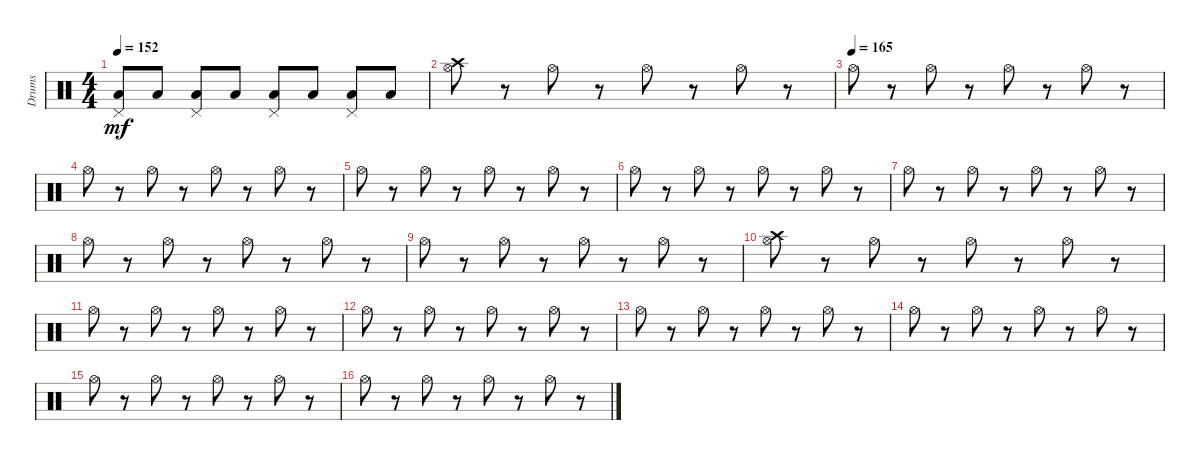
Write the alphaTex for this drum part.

\track ("Drums" "Drums") {instrument percussion}
\staff {score}
\articulation defaults
\ts (4 4)
\tempo 152
\clef neutral
\ks c
("Low Floor Tom (hit)" "Pedal Hi-Hat (hit)").8{dy mf} "Low Floor Tom (hit)".8 ("Low Floor Tom (hit)" "Pedal Hi-Hat (hit)").8 "Low Floor Tom (hit)".8 ("Low Floor Tom (hit)" "Pedal Hi-Hat (hit)").8 "Low Floor Tom (hit)".8 ("Low Floor Tom (hit)" "Pedal Hi-Hat (hit)").8 "Low Floor Tom (hit)".8 |
("Crash high (hit)" "Hi-Hat (open)").8 r.8 "Hi-Hat (open)".8 r.8 "Hi-Hat (open)".8 r.8 "Hi-Hat (open)".8 r.8 |
\tempo (165)
"Hi-Hat (open)".8 r.8 "Hi-Hat (open)".8 r.8 "Hi-Hat (open)".8 r.8 "Hi-Hat (open)".8 r.8 |
"Hi-Hat (open)".8 r.8 "Hi-Hat (open)".8 r.8 "Hi-Hat (open)".8 r.8 "Hi-Hat (open)".8 r.8 |
"Hi-Hat (open)".8 r.8 "Hi-Hat (open)".8 r.8 "Hi-Hat (open)".8 r.8 "Hi-Hat (open)".8 r.8 |
"Hi-Hat (open)".8 r.8 "Hi-Hat (open)".8 r.8 "Hi-Hat (open)".8 r.8 "Hi-Hat (open)".8 r.8 |
"Hi-Hat (open)".8 r.8 "Hi-Hat (open)".8 r.8 "Hi-Hat (open)".8 r.8 "Hi-Hat (open)".8 r.8 |
"Hi-Hat (open)".8 r.8 "Hi-Hat (open)".8 r.8 "Hi-Hat (open)".8 r.8 "Hi-Hat (open)".8 r.8 |
"Hi-Hat (open)".8 r.8 "Hi-Hat (open)".8 r.8 "Hi-Hat (open)".8 r.8 "Hi-Hat (open)".8 r.8 |
("Hi-Hat (open)" "Crash high (hit)").8 r.8 "Hi-Hat (open)".8 r.8 "Hi-Hat (open)".8 r.8 "Hi-Hat (open)".8 r.8 |
"Hi-Hat (open)".8 r.8 "Hi-Hat (open)".8 r.8 "Hi-Hat (open)".8 r.8 "Hi-Hat (open)".8 r.8 |
"Hi-Hat (open)".8 r.8 "Hi-Hat (open)".8 r.8 "Hi-Hat (open)".8 r.8 "Hi-Hat (open)".8 r.8 |
"Hi-Hat (open)".8 r.8 "Hi-Hat (open)".8 r.8 "Hi-Hat (open)".8 r.8 "Hi-Hat (open)".8 r.8 |
"Hi-Hat (open)".8 r.8 "Hi-Hat (open)".8 r.8 "Hi-Hat (open)".8 r.8 "Hi-Hat (open)".8 r.8 |
"Hi-Hat (open)".8 r.8 "Hi-Hat (open)".8 r.8 "Hi-Hat (open)".8 r.8 "Hi-Hat (open)".8 r.8 |
"Hi-Hat (open)".8 r.8 "Hi-Hat (open)".8 r.8 "Hi-Hat (open)".8 r.8 "Hi-Hat (open)".8 r.8
